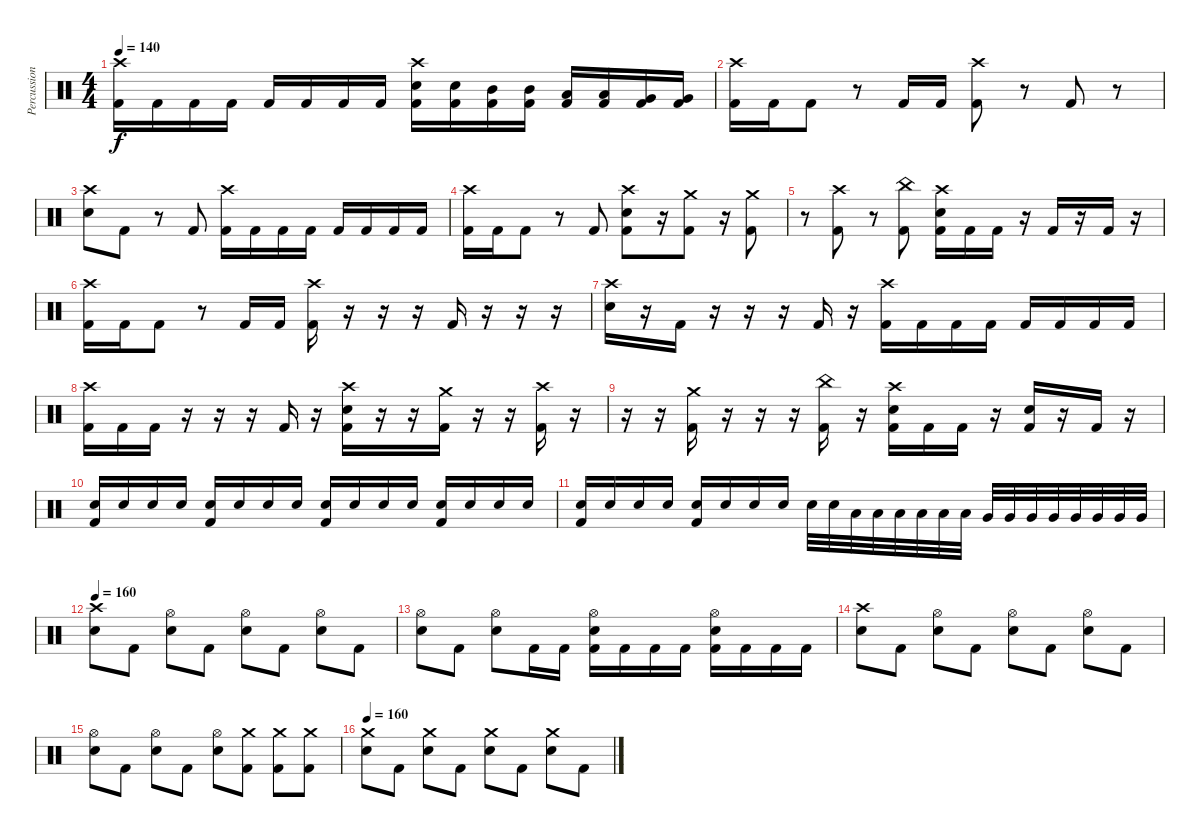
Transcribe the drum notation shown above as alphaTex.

\track ("Percussion" "Percussion") {instrument percussion}
\staff {score}
\articulation defaults
\ts (4 4)
\tempo 140
\clef neutral
\ks c
("Crash high (hit)" "Kick (hit) 2").16{dy f} "Kick (hit) 2".16 "Kick (hit) 2".16 "Kick (hit) 2".16 "Kick (hit) 2".16 "Kick (hit) 2".16 "Kick (hit) 2".16 "Kick (hit) 2".16 ("Crash high (hit)" "Electric Snare (hit)" "Kick (hit) 2").16 ("Electric Snare (hit)" "Kick (hit) 2").16 ("Mid Tom (hit)" "Kick (hit) 2").16 ("Mid Tom (hit)" "Kick (hit) 2").16 ("Low Tom (hit)" "Kick (hit) 2").16 ("Low Tom (hit)" "Kick (hit) 2").16 ("Very Low Tom (hit)" "Kick (hit) 2").16 ("Very Low Tom (hit)" "Kick (hit) 2").16 |
("Crash high (hit)" "Kick (hit) 2").16 "Kick (hit) 2".16 "Kick (hit) 2".8 r.8 "Kick (hit) 2".16 "Kick (hit) 2".16 ("Crash high (hit)" "Kick (hit) 2").8 r.8 "Kick (hit) 2".8 r.8 |
("Crash high (hit)" "Electric Snare (hit)").8 "Kick (hit) 2".8 r.8 "Kick (hit) 2".8 ("Crash high (hit)" "Kick (hit) 2").16 "Kick (hit) 2".16 "Kick (hit) 2".16 "Kick (hit) 2".16 "Kick (hit) 2".16 "Kick (hit) 2".16 "Kick (hit) 2".16 "Kick (hit) 2".16 |
("Crash high (hit)" "Kick (hit) 2").16 "Kick (hit) 2".16 "Kick (hit) 2".8 r.8 "Kick (hit) 2".8 ("Crash high (hit)" "Electric Snare (hit)" "Kick (hit) 2").8 r.16 ("Crash medium (hit)" "Kick (hit) 2").8 r.16 ("Crash medium (hit)" "Kick (hit) 2").8 |
r.8 ("Crash high (hit)" "Kick (hit) 2").8 r.8 ("China (hit)" "Kick (hit) 2").8 ("Crash high (hit)" "Electric Snare (hit)" "Kick (hit) 2").16 "Kick (hit) 2".16 "Kick (hit) 2".16 r.16 "Kick (hit) 2".16 r.16 "Kick (hit) 2".16 r.16 |
("Crash high (hit)" "Kick (hit) 2").16 "Kick (hit) 2".16 "Kick (hit) 2".8 r.8 "Kick (hit) 2".16 "Kick (hit) 2".16 ("Crash high (hit)" "Kick (hit) 2").16 r.16 r.16 r.16 "Kick (hit) 2".16 r.16 r.16 r.16 |
("Crash high (hit)" "Electric Snare (hit)").16 r.16 "Kick (hit) 2".16 r.16 r.16 r.16 "Kick (hit) 2".16 r.16 ("Crash high (hit)" "Kick (hit) 2").16 "Kick (hit) 2".16 "Kick (hit) 2".16 "Kick (hit) 2".16 "Kick (hit) 2".16 "Kick (hit) 2".16 "Kick (hit) 2".16 "Kick (hit) 2".16 |
("Crash high (hit)" "Kick (hit) 2").16 "Kick (hit) 2".16 "Kick (hit) 2".16 r.16 r.16 r.16 "Kick (hit) 2".16 r.16 ("Crash high (hit)" "Electric Snare (hit)" "Kick (hit) 2").16 r.16 r.16 ("Crash medium (hit)" "Kick (hit) 2").16 r.16 r.16 ("Crash high (hit)" "Kick (hit) 2").16 r.16 |
r.16 r.16 ("Crash medium (hit)" "Kick (hit) 2").16 r.16 r.16 r.16 ("China (hit)" "Kick (hit) 2").16 r.16 ("Crash high (hit)" "Electric Snare (hit)" "Kick (hit) 2").16 "Kick (hit) 2".16 "Kick (hit) 2".16 r.16 ("Electric Snare (hit)" "Kick (hit) 2").16 r.16 "Kick (hit) 2".16 r.16 |
("Electric Snare (hit)" "Kick (hit) 2").16 "Electric Snare (hit)".16 "Electric Snare (hit)".16 "Electric Snare (hit)".16 ("Electric Snare (hit)" "Kick (hit) 2").16 "Electric Snare (hit)".16 "Electric Snare (hit)".16 "Electric Snare (hit)".16 ("Electric Snare (hit)" "Kick (hit) 2").16 "Electric Snare (hit)".16 "Electric Snare (hit)".16 "Electric Snare (hit)".16 ("Electric Snare (hit)" "Kick (hit) 2").16 "Electric Snare (hit)".16 "Electric Snare (hit)".16 "Electric Snare (hit)".16 |
("Electric Snare (hit)" "Kick (hit) 2").16 "Electric Snare (hit)".16 "Electric Snare (hit)".16 "Electric Snare (hit)".16 ("Electric Snare (hit)" "Kick (hit) 2").16 "Electric Snare (hit)".16 "Electric Snare (hit)".16 "Electric Snare (hit)".16 "Electric Snare (hit)".32 "Electric Snare (hit)".32 "Low Tom (hit)".32 "Low Tom (hit)".32 "Low Tom (hit)".32 "Low Tom (hit)".32 "Low Tom (hit)".32 "Low Tom (hit)".32 "Very Low Tom (hit)".32 "Very Low Tom (hit)".32 "Very Low Tom (hit)".32 "Very Low Tom (hit)".32 "Very Low Tom (hit)".32 "Very Low Tom (hit)".32 "Very Low Tom (hit)".32 "Very Low Tom (hit)".32 |
\tempo 160
("Crash high (hit)" "Electric Snare (hit)").8 "Kick (hit) 2".8 ("Hi-Hat (open)" "Electric Snare (hit)").8 "Kick (hit) 2".8 ("Hi-Hat (open)" "Electric Snare (hit)").8 "Kick (hit) 2".8 ("Hi-Hat (open)" "Electric Snare (hit)").8 "Kick (hit) 2".8 |
("Hi-Hat (open)" "Electric Snare (hit)").8 "Kick (hit) 2".8 ("Hi-Hat (open)" "Electric Snare (hit)").8 "Kick (hit) 2".16 "Kick (hit) 2".16 ("Hi-Hat (open)" "Electric Snare (hit)" "Kick (hit) 2").16 "Kick (hit) 2".16 "Kick (hit) 2".16 "Kick (hit) 2".16 ("Hi-Hat (open)" "Electric Snare (hit)" "Kick (hit) 2").16 "Kick (hit) 2".16 "Kick (hit) 2".16 "Kick (hit) 2".16 |
("Crash high (hit)" "Electric Snare (hit)").8 "Kick (hit) 2".8 ("Hi-Hat (open)" "Electric Snare (hit)").8 "Kick (hit) 2".8 ("Hi-Hat (open)" "Electric Snare (hit)").8 "Kick (hit) 2".8 ("Hi-Hat (open)" "Electric Snare (hit)").8 "Kick (hit) 2".8 |
("Hi-Hat (open)" "Electric Snare (hit)").8 "Kick (hit) 2".8 ("Hi-Hat (open)" "Electric Snare (hit)").8 "Kick (hit) 2".8 ("Hi-Hat (open)" "Electric Snare (hit)").8 ("Crash medium (hit)" "Kick (hit) 2").8 ("Crash medium (hit)" "Kick (hit) 2").8 ("Crash medium (hit)" "Kick (hit) 2").8 |
\tempo 160
("Crash medium (hit)" "Electric Snare (hit)").8 "Kick (hit) 2".8 ("Crash medium (hit)" "Electric Snare (hit)").8 "Kick (hit) 2".8 ("Crash medium (hit)" "Electric Snare (hit)").8 "Kick (hit) 2".8 ("Crash medium (hit)" "Electric Snare (hit)").8 "Kick (hit) 2".8
